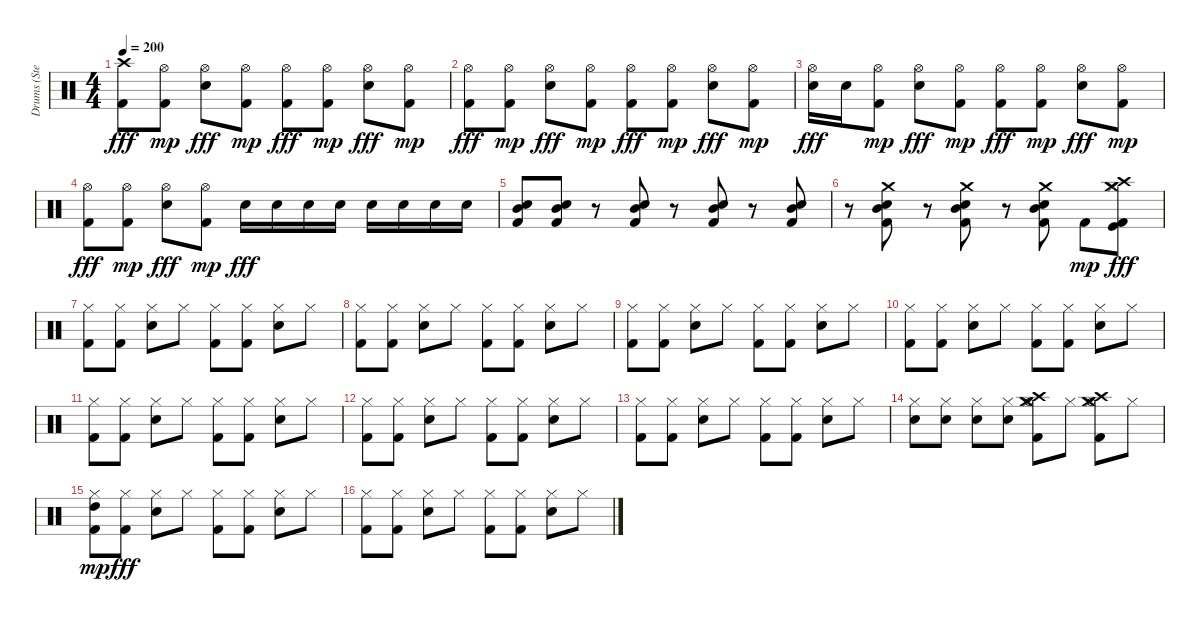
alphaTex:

\track ("Drums (Stevo32)" "Drums (Ste") {instrument percussion}
\staff {score}
\articulation defaults
\ts (4 4)
\tempo 200
\clef neutral
\ks c
("Kick (hit) 2" "Crash high (hit)").8{dy fff} ("Kick (hit) 2" "Hi-Hat (open)").8{dy mp} ("Electric Snare (hit)" "Hi-Hat (open)").8{dy fff} ("Kick (hit) 2" "Hi-Hat (open)").8{dy mp} ("Kick (hit) 2" "Hi-Hat (open)").8{dy fff} ("Kick (hit) 2" "Hi-Hat (open)").8{dy mp} ("Electric Snare (hit)" "Hi-Hat (open)").8{dy fff} ("Kick (hit) 2" "Hi-Hat (open)").8{dy mp} |
("Kick (hit) 2" "Hi-Hat (open)").8{dy fff} ("Kick (hit) 2" "Hi-Hat (open)").8{dy mp} ("Electric Snare (hit)" "Hi-Hat (open)").8{dy fff} ("Kick (hit) 2" "Hi-Hat (open)").8{dy mp} ("Kick (hit) 2" "Hi-Hat (open)").8{dy fff} ("Kick (hit) 2" "Hi-Hat (open)").8{dy mp} ("Electric Snare (hit)" "Hi-Hat (open)").8{dy fff} ("Kick (hit) 2" "Hi-Hat (open)").8{dy mp} |
("Electric Snare (hit)" "Hi-Hat (open)").16{dy fff} "Electric Snare (hit)".16 ("Kick (hit) 2" "Hi-Hat (open)").8{dy mp} ("Electric Snare (hit)" "Hi-Hat (open)").8{dy fff} ("Kick (hit) 2" "Hi-Hat (open)").8{dy mp} ("Kick (hit) 2" "Hi-Hat (open)").8{dy fff} ("Kick (hit) 2" "Hi-Hat (open)").8{dy mp} ("Electric Snare (hit)" "Hi-Hat (open)").8{dy fff} ("Kick (hit) 2" "Hi-Hat (open)").8{dy mp} |
("Kick (hit) 2" "Hi-Hat (open)").8{dy fff} ("Kick (hit) 2" "Hi-Hat (open)").8{dy mp} ("Electric Snare (hit)" "Hi-Hat (open)").8{dy fff} ("Kick (hit) 2" "Hi-Hat (open)").8{dy mp} "Electric Snare (hit)".16{dy fff} "Electric Snare (hit)".16 "Electric Snare (hit)".16 "Electric Snare (hit)".16 "Electric Snare (hit)".16 "Electric Snare (hit)".16 "Electric Snare (hit)".16 "Electric Snare (hit)".16 |
("Kick (hit) 2" "Electric Snare (hit)" "Mid Tom (hit)").8 ("Kick (hit) 2" "Electric Snare (hit)" "Mid Tom (hit)").8 r.8 ("Kick (hit) 2" "Electric Snare (hit)" "Mid Tom (hit)").8 r.8 ("Kick (hit) 2" "Electric Snare (hit)" "Mid Tom (hit)").8 r.8 ("Kick (hit) 2" "Electric Snare (hit)" "Mid Tom (hit)").8 |
r.8 ("Kick (hit) 2" "Electric Snare (hit)" "Mid Tom (hit)" "Crash medium (hit)").8 r.8 ("Kick (hit) 2" "Electric Snare (hit)" "Mid Tom (hit)" "Crash medium (hit)").8 r.8 ("Kick (hit) 2" "Electric Snare (hit)" "Mid Tom (hit)" "Crash medium (hit)").8 "Kick (hit) 2".8{dy mp} ("Kick (hit)" "Kick (hit) 2" "Hi-Hat (closed)" "Crash high (hit)" "Crash medium (hit)").8{dy fff} |
("Kick (hit) 2" "Hi-Hat (closed)").8 ("Kick (hit) 2" "Hi-Hat (closed)").8 ("Electric Snare (hit)" "Hi-Hat (closed)").8 "Hi-Hat (closed)".8 ("Kick (hit) 2" "Hi-Hat (closed)").8 ("Kick (hit) 2" "Hi-Hat (closed)").8 ("Electric Snare (hit)" "Hi-Hat (closed)").8 "Hi-Hat (closed)".8 |
("Kick (hit) 2" "Hi-Hat (closed)").8 ("Kick (hit) 2" "Hi-Hat (closed)").8 ("Electric Snare (hit)" "Hi-Hat (closed)").8 "Hi-Hat (closed)".8 ("Kick (hit) 2" "Hi-Hat (closed)").8 ("Kick (hit) 2" "Hi-Hat (closed)").8 ("Electric Snare (hit)" "Hi-Hat (closed)").8 "Hi-Hat (closed)".8 |
("Kick (hit) 2" "Hi-Hat (closed)").8 ("Kick (hit) 2" "Hi-Hat (closed)").8 ("Electric Snare (hit)" "Hi-Hat (closed)").8 "Hi-Hat (closed)".8 ("Kick (hit) 2" "Hi-Hat (closed)").8 ("Kick (hit) 2" "Hi-Hat (closed)").8 ("Electric Snare (hit)" "Hi-Hat (closed)").8 "Hi-Hat (closed)".8 |
("Kick (hit) 2" "Hi-Hat (closed)").8 ("Kick (hit) 2" "Hi-Hat (closed)").8 ("Electric Snare (hit)" "Hi-Hat (closed)").8 "Hi-Hat (closed)".8 ("Kick (hit) 2" "Hi-Hat (closed)").8 ("Kick (hit) 2" "Hi-Hat (closed)").8 ("Electric Snare (hit)" "Hi-Hat (closed)").8 "Hi-Hat (closed)".8 |
("Kick (hit) 2" "Hi-Hat (closed)").8 ("Kick (hit) 2" "Hi-Hat (closed)").8 ("Electric Snare (hit)" "Hi-Hat (closed)").8 "Hi-Hat (closed)".8 ("Kick (hit) 2" "Hi-Hat (closed)").8 ("Kick (hit) 2" "Hi-Hat (closed)").8 ("Electric Snare (hit)" "Hi-Hat (closed)").8 "Hi-Hat (closed)".8 |
("Kick (hit) 2" "Hi-Hat (closed)").8 ("Kick (hit) 2" "Hi-Hat (closed)").8 ("Electric Snare (hit)" "Hi-Hat (closed)").8 "Hi-Hat (closed)".8 ("Kick (hit) 2" "Hi-Hat (closed)").8 ("Kick (hit) 2" "Hi-Hat (closed)").8 ("Electric Snare (hit)" "Hi-Hat (closed)").8 "Hi-Hat (closed)".8 |
("Kick (hit) 2" "Hi-Hat (closed)").8 ("Kick (hit) 2" "Hi-Hat (closed)").8 ("Electric Snare (hit)" "Hi-Hat (closed)").8 "Hi-Hat (closed)".8 ("Kick (hit) 2" "Hi-Hat (closed)").8 ("Kick (hit) 2" "Hi-Hat (closed)").8 ("Electric Snare (hit)" "Hi-Hat (closed)").8 "Hi-Hat (closed)".8 |
("Electric Snare (hit)" "Hi-Hat (closed)").8 ("Electric Snare (hit)" "Hi-Hat (closed)").8 ("Electric Snare (hit)" "Hi-Hat (closed)").8 ("Electric Snare (hit)" "Hi-Hat (closed)").8 ("Kick (hit) 2" "Hi-Hat (closed)" "Hi-Hat (open)" "Crash high (hit)" "Crash medium (hit)").8 "Hi-Hat (closed)".8 ("Kick (hit) 2" "Hi-Hat (closed)" "Hi-Hat (open)" "Crash high (hit)" "Crash medium (hit)").8 "Hi-Hat (closed)".8 |
("Kick (hit) 2" "Hi-Hat (closed)" "High Tom (hit)").8{dy mp} ("Kick (hit) 2" "Hi-Hat (closed)").8{dy fff} ("Electric Snare (hit)" "Hi-Hat (closed)").8 "Hi-Hat (closed)".8 ("Kick (hit) 2" "Hi-Hat (closed)").8 ("Kick (hit) 2" "Hi-Hat (closed)").8 ("Electric Snare (hit)" "Hi-Hat (closed)").8 "Hi-Hat (closed)".8 |
("Kick (hit) 2" "Hi-Hat (closed)").8 ("Kick (hit) 2" "Hi-Hat (closed)").8 ("Electric Snare (hit)" "Hi-Hat (closed)").8 "Hi-Hat (closed)".8 ("Kick (hit) 2" "Hi-Hat (closed)").8 ("Kick (hit) 2" "Hi-Hat (closed)").8 ("Electric Snare (hit)" "Hi-Hat (closed)").8 "Hi-Hat (closed)".8
